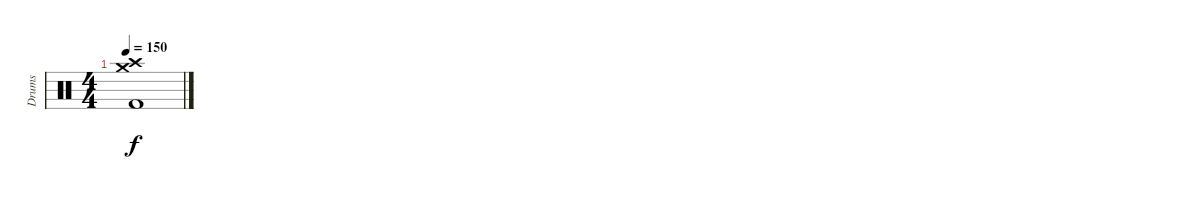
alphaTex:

\track ("Drums" "Drums") {instrument percussion}
\staff {score}
\articulation defaults
\ts (4 4)
\tempo 150
\clef neutral
\ks c
("Kick (hit) 2" "Crash medium (hit)" "Crash high (hit)").1{dy f}
